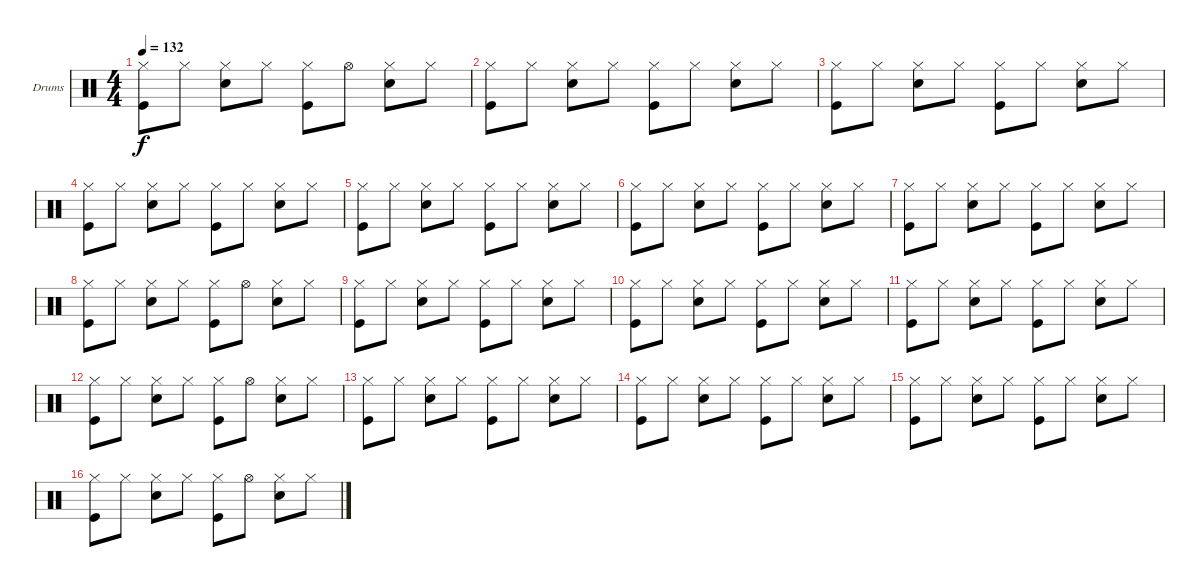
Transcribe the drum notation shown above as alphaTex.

\defaultSystemsLayout 4
\bracketExtendMode groupsimilarinstruments
\firstSystemTrackNameOrientation horizontal
\otherSystemsTrackNameOrientation horizontal
\track ("Fab Moretti" "Drums") {instrument percussion}
\staff {score}
\articulation defaults
\ts (4 4)
\tempo 132
\clef neutral
\scale
0.472222
\ks c
("Hi-Hat (closed)" "Kick (hit)").8{dy f} "Hi-Hat (closed)".8 ("Hi-Hat (closed)" "Snare (hit) 2").8 "Hi-Hat (closed)".8 ("Hi-Hat (closed)" "Kick (hit)").8 "Hi-Hat (open)".8 ("Hi-Hat (closed)" "Snare (hit) 2").8 "Hi-Hat (closed)".8 |
\scale
0.263889 ("Hi-Hat (closed)" "Kick (hit)").8 "Hi-Hat (closed)".8 ("Hi-Hat (closed)" "Snare (hit) 2").8 "Hi-Hat (closed)".8 ("Hi-Hat (closed)" "Kick (hit)").8 "Hi-Hat (closed)".8 ("Hi-Hat (closed)" "Snare (hit) 2").8 "Hi-Hat (closed)".8 |
\scale
0.263889 ("Hi-Hat (closed)" "Kick (hit)").8 "Hi-Hat (closed)".8 ("Hi-Hat (closed)" "Snare (hit) 2").8 "Hi-Hat (closed)".8 ("Hi-Hat (closed)" "Kick (hit)").8 "Hi-Hat (closed)".8 ("Hi-Hat (closed)" "Snare (hit) 2").8 "Hi-Hat (closed)".8 |
\scale
0.333333 ("Hi-Hat (closed)" "Kick (hit)").8 "Hi-Hat (closed)".8 ("Hi-Hat (closed)" "Snare (hit) 2").8 "Hi-Hat (closed)".8 ("Hi-Hat (closed)" "Kick (hit)").8 "Hi-Hat (closed)".8 ("Hi-Hat (closed)" "Snare (hit) 2").8 "Hi-Hat (closed)".8 |
\scale
0.333333 ("Hi-Hat (closed)" "Kick (hit)").8 "Hi-Hat (closed)".8 ("Hi-Hat (closed)" "Snare (hit) 2").8 "Hi-Hat (closed)".8 ("Hi-Hat (closed)" "Kick (hit)").8 "Hi-Hat (closed)".8 ("Hi-Hat (closed)" "Snare (hit) 2").8 "Hi-Hat (closed)".8 |
\scale
0.333333 ("Hi-Hat (closed)" "Kick (hit)").8 "Hi-Hat (closed)".8 ("Hi-Hat (closed)" "Snare (hit) 2").8 "Hi-Hat (closed)".8 ("Hi-Hat (closed)" "Kick (hit)").8 "Hi-Hat (closed)".8 ("Hi-Hat (closed)" "Snare (hit) 2").8 "Hi-Hat (closed)".8 |
("Hi-Hat (closed)" "Kick (hit)").8 "Hi-Hat (closed)".8 ("Hi-Hat (closed)" "Snare (hit) 2").8 "Hi-Hat (closed)".8 ("Hi-Hat (closed)" "Kick (hit)").8 "Hi-Hat (closed)".8 ("Hi-Hat (closed)" "Snare (hit) 2").8 "Hi-Hat (closed)".8 |
("Hi-Hat (closed)" "Kick (hit)").8 "Hi-Hat (closed)".8 ("Hi-Hat (closed)" "Snare (hit) 2").8 "Hi-Hat (closed)".8 ("Hi-Hat (closed)" "Kick (hit)").8 "Hi-Hat (open)".8 ("Hi-Hat (closed)" "Snare (hit) 2").8 "Hi-Hat (closed)".8 |
("Hi-Hat (closed)" "Kick (hit)").8 "Hi-Hat (closed)".8 ("Hi-Hat (closed)" "Snare (hit) 2").8 "Hi-Hat (closed)".8 ("Hi-Hat (closed)" "Kick (hit)").8 "Hi-Hat (closed)".8 ("Hi-Hat (closed)" "Snare (hit) 2").8 "Hi-Hat (closed)".8 |
("Hi-Hat (closed)" "Kick (hit)").8 "Hi-Hat (closed)".8 ("Hi-Hat (closed)" "Snare (hit) 2").8 "Hi-Hat (closed)".8 ("Hi-Hat (closed)" "Kick (hit)").8 "Hi-Hat (closed)".8 ("Hi-Hat (closed)" "Snare (hit) 2").8 "Hi-Hat (closed)".8 |
("Hi-Hat (closed)" "Kick (hit)").8 "Hi-Hat (closed)".8 ("Hi-Hat (closed)" "Snare (hit) 2").8 "Hi-Hat (closed)".8 ("Hi-Hat (closed)" "Kick (hit)").8 "Hi-Hat (closed)".8 ("Hi-Hat (closed)" "Snare (hit) 2").8 "Hi-Hat (closed)".8 |
("Hi-Hat (closed)" "Kick (hit)").8 "Hi-Hat (closed)".8 ("Hi-Hat (closed)" "Snare (hit) 2").8 "Hi-Hat (closed)".8 ("Hi-Hat (closed)" "Kick (hit)").8 "Hi-Hat (open)".8 ("Hi-Hat (closed)" "Snare (hit) 2").8 "Hi-Hat (closed)".8 |
("Hi-Hat (closed)" "Kick (hit)").8 "Hi-Hat (closed)".8 ("Hi-Hat (closed)" "Snare (hit) 2").8 "Hi-Hat (closed)".8 ("Hi-Hat (closed)" "Kick (hit)").8 "Hi-Hat (closed)".8 ("Hi-Hat (closed)" "Snare (hit) 2").8 "Hi-Hat (closed)".8 |
("Hi-Hat (closed)" "Kick (hit)").8 "Hi-Hat (closed)".8 ("Hi-Hat (closed)" "Snare (hit) 2").8 "Hi-Hat (closed)".8 ("Hi-Hat (closed)" "Kick (hit)").8 "Hi-Hat (closed)".8 ("Hi-Hat (closed)" "Snare (hit) 2").8 "Hi-Hat (closed)".8 |
("Hi-Hat (closed)" "Kick (hit)").8 "Hi-Hat (closed)".8 ("Hi-Hat (closed)" "Snare (hit) 2").8 "Hi-Hat (closed)".8 ("Hi-Hat (closed)" "Kick (hit)").8 "Hi-Hat (closed)".8 ("Hi-Hat (closed)" "Snare (hit) 2").8 "Hi-Hat (closed)".8 |
("Hi-Hat (closed)" "Kick (hit)").8 "Hi-Hat (closed)".8 ("Hi-Hat (closed)" "Snare (hit) 2").8 "Hi-Hat (closed)".8 ("Hi-Hat (closed)" "Kick (hit)").8 "Hi-Hat (open)".8 ("Hi-Hat (closed)" "Snare (hit) 2").8 "Hi-Hat (closed)".8
